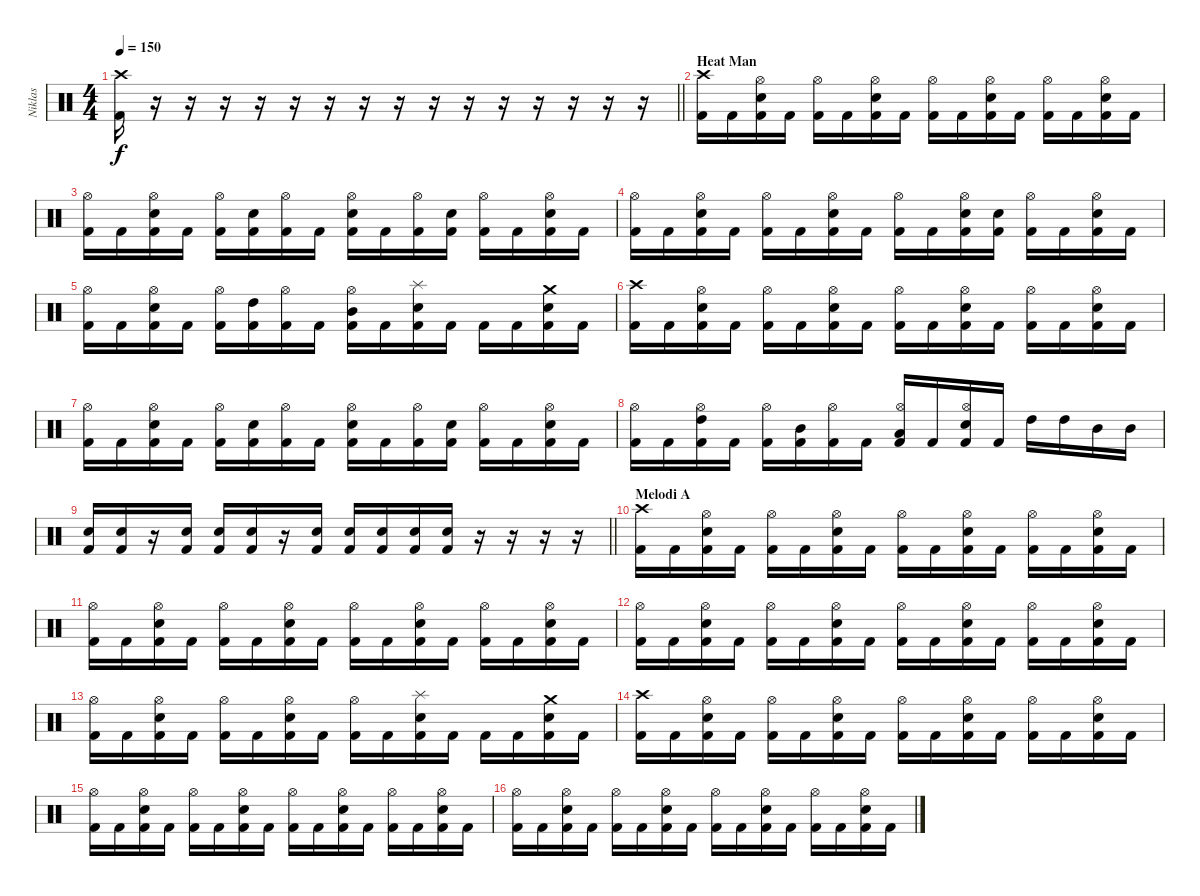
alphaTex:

\track ("Niklas" "Niklas") {instrument percussion}
\staff {score}
\articulation defaults
\ts (4 4)
\tempo 150
\clef neutral
\barLineRight lightlight
\ks c
("Crash high (hit)" "Kick (hit) 2").16{dy f} r.16 r.16 r.16 r.16 r.16 r.16 r.16 r.16 r.16 r.16 r.16 r.16 r.16 r.16 r.16 |
\section ("" "Heat Man")
("Crash high (hit)" "Kick (hit) 2").16 "Kick (hit) 2".16 ("Hi-Hat (open)" "Electric Snare (hit)" "Kick (hit) 2").16 "Kick (hit) 2".16 ("Hi-Hat (open)" "Kick (hit) 2").16 "Kick (hit) 2".16 ("Hi-Hat (open)" "Electric Snare (hit)" "Kick (hit) 2").16 "Kick (hit) 2".16 ("Hi-Hat (open)" "Kick (hit) 2").16 "Kick (hit) 2".16 ("Hi-Hat (open)" "Electric Snare (hit)" "Kick (hit) 2").16 "Kick (hit) 2".16 ("Hi-Hat (open)" "Kick (hit) 2").16 "Kick (hit) 2".16 ("Hi-Hat (open)" "Electric Snare (hit)" "Kick (hit) 2").16 "Kick (hit) 2".16 |
("Hi-Hat (open)" "Kick (hit) 2").16 "Kick (hit) 2".16 ("Hi-Hat (open)" "Electric Snare (hit)" "Kick (hit) 2").16 "Kick (hit) 2".16 ("Hi-Hat (open)" "Kick (hit) 2").16 ("Electric Snare (hit)" "Kick (hit) 2").16 ("Hi-Hat (open)" "Kick (hit) 2").16 "Kick (hit) 2".16 ("Hi-Hat (open)" "Electric Snare (hit)" "Kick (hit) 2").16 "Kick (hit) 2".16 ("Hi-Hat (open)" "Kick (hit) 2").16 ("Electric Snare (hit)" "Kick (hit) 2").16 ("Hi-Hat (open)" "Kick (hit) 2").16 "Kick (hit) 2".16 ("Hi-Hat (open)" "Electric Snare (hit)" "Kick (hit) 2").16 "Kick (hit) 2".16 |
("Hi-Hat (open)" "Kick (hit) 2").16 "Kick (hit) 2".16 ("Hi-Hat (open)" "Electric Snare (hit)" "Kick (hit) 2").16 "Kick (hit) 2".16 ("Hi-Hat (open)" "Kick (hit) 2").16 "Kick (hit) 2".16 ("Hi-Hat (open)" "Electric Snare (hit)" "Kick (hit) 2").16 "Kick (hit) 2".16 ("Hi-Hat (open)" "Kick (hit) 2").16 "Kick (hit) 2".16 ("Hi-Hat (open)" "Electric Snare (hit)" "Kick (hit) 2").16 ("Electric Snare (hit)" "Kick (hit) 2").16 ("Hi-Hat (open)" "Kick (hit) 2").16 "Kick (hit) 2".16 ("Hi-Hat (open)" "Electric Snare (hit)" "Kick (hit) 2").16 "Kick (hit) 2".16 |
("Hi-Hat (open)" "Kick (hit) 2").16 "Kick (hit) 2".16 ("Hi-Hat (open)" "Electric Snare (hit)" "Kick (hit) 2").16 "Kick (hit) 2".16 ("Hi-Hat (open)" "Kick (hit) 2").16 ("High Tom (hit)" "Kick (hit) 2").16 ("Hi-Hat (open)" "Kick (hit) 2").16 "Kick (hit) 2".16 ("Hi-Hat (open)" "Mid Tom (hit)" "Kick (hit) 2").16 "Kick (hit) 2".16 ("Splash (hit)" "Electric Snare (hit)" "Kick (hit) 2").16 "Kick (hit) 2".16 "Kick (hit) 2".16 "Kick (hit) 2".16 ("Crash medium (hit)" "Electric Snare (hit)" "Kick (hit) 2").16 "Kick (hit) 2".16 |
("Crash high (hit)" "Kick (hit) 2").16 "Kick (hit) 2".16 ("Hi-Hat (open)" "Electric Snare (hit)" "Kick (hit) 2").16 "Kick (hit) 2".16 ("Hi-Hat (open)" "Kick (hit) 2").16 "Kick (hit) 2".16 ("Hi-Hat (open)" "Electric Snare (hit)" "Kick (hit) 2").16 "Kick (hit) 2".16 ("Hi-Hat (open)" "Kick (hit) 2").16 "Kick (hit) 2".16 ("Hi-Hat (open)" "Electric Snare (hit)" "Kick (hit) 2").16 "Kick (hit) 2".16 ("Hi-Hat (open)" "Kick (hit) 2").16 "Kick (hit) 2".16 ("Hi-Hat (open)" "Electric Snare (hit)" "Kick (hit) 2").16 "Kick (hit) 2".16 |
("Hi-Hat (open)" "Kick (hit) 2").16 "Kick (hit) 2".16 ("Hi-Hat (open)" "Electric Snare (hit)" "Kick (hit) 2").16 "Kick (hit) 2".16 ("Hi-Hat (open)" "Kick (hit) 2").16 ("Electric Snare (hit)" "Kick (hit) 2").16 ("Hi-Hat (open)" "Kick (hit) 2").16 "Kick (hit) 2".16 ("Hi-Hat (open)" "Electric Snare (hit)" "Kick (hit) 2").16 "Kick (hit) 2".16 ("Hi-Hat (open)" "Kick (hit) 2").16 ("Electric Snare (hit)" "Kick (hit) 2").16 ("Hi-Hat (open)" "Kick (hit) 2").16 "Kick (hit) 2".16 ("Hi-Hat (open)" "Electric Snare (hit)" "Kick (hit) 2").16 "Kick (hit) 2".16 |
("Hi-Hat (open)" "Kick (hit) 2").16 "Kick (hit) 2".16 ("High Tom (hit)" "Hi-Hat (open)" "Kick (hit) 2").16 "Kick (hit) 2".16 ("Hi-Hat (open)" "Kick (hit) 2").16 ("Mid Tom (hit)" "Kick (hit) 2").16 ("Hi-Hat (open)" "Kick (hit) 2").16 "Kick (hit) 2".16 ("Hi-Hat (open)" "Low Tom (hit)" "Kick (hit) 2").16 "Kick (hit) 2".16 ("Hi-Hat (open)" "Electric Snare (hit)" "Kick (hit) 2").16 "Kick (hit) 2".16 "High Tom (hit)".16 "High Tom (hit)".16 "Mid Tom (hit)".16 "Mid Tom (hit)".16 |
\barLineRight lightlight
("Electric Snare (hit)" "Kick (hit) 2").16 ("Electric Snare (hit)" "Kick (hit) 2").16 r.16 ("Electric Snare (hit)" "Kick (hit) 2").16 ("Electric Snare (hit)" "Kick (hit) 2").16 ("Electric Snare (hit)" "Kick (hit) 2").16 r.16 ("Electric Snare (hit)" "Kick (hit) 2").16 ("Electric Snare (hit)" "Kick (hit) 2").16 ("Electric Snare (hit)" "Kick (hit) 2").16 ("Electric Snare (hit)" "Kick (hit) 2").16 ("Electric Snare (hit)" "Kick (hit) 2").16 r.16 r.16 r.16 r.16 |
\section ("" "Melodi A")
("Crash high (hit)" "Kick (hit) 2").16 "Kick (hit) 2".16 ("Hi-Hat (open)" "Electric Snare (hit)" "Kick (hit) 2").16 "Kick (hit) 2".16 ("Hi-Hat (open)" "Kick (hit) 2").16 "Kick (hit) 2".16 ("Hi-Hat (open)" "Electric Snare (hit)" "Kick (hit) 2").16 "Kick (hit) 2".16 ("Hi-Hat (open)" "Kick (hit) 2").16 "Kick (hit) 2".16 ("Hi-Hat (open)" "Electric Snare (hit)" "Kick (hit) 2").16 "Kick (hit) 2".16 ("Hi-Hat (open)" "Kick (hit) 2").16 "Kick (hit) 2".16 ("Hi-Hat (open)" "Electric Snare (hit)" "Kick (hit) 2").16 "Kick (hit) 2".16 |
("Hi-Hat (open)" "Kick (hit) 2").16 "Kick (hit) 2".16 ("Hi-Hat (open)" "Electric Snare (hit)" "Kick (hit) 2").16 "Kick (hit) 2".16 ("Hi-Hat (open)" "Kick (hit) 2").16 "Kick (hit) 2".16 ("Hi-Hat (open)" "Electric Snare (hit)" "Kick (hit) 2").16 "Kick (hit) 2".16 ("Hi-Hat (open)" "Kick (hit) 2").16 "Kick (hit) 2".16 ("Hi-Hat (open)" "Electric Snare (hit)" "Kick (hit) 2").16 "Kick (hit) 2".16 ("Hi-Hat (open)" "Kick (hit) 2").16 "Kick (hit) 2".16 ("Hi-Hat (open)" "Electric Snare (hit)" "Kick (hit) 2").16 "Kick (hit) 2".16 |
("Hi-Hat (open)" "Kick (hit) 2").16 "Kick (hit) 2".16 ("Hi-Hat (open)" "Electric Snare (hit)" "Kick (hit) 2").16 "Kick (hit) 2".16 ("Hi-Hat (open)" "Kick (hit) 2").16 "Kick (hit) 2".16 ("Hi-Hat (open)" "Electric Snare (hit)" "Kick (hit) 2").16 "Kick (hit) 2".16 ("Hi-Hat (open)" "Kick (hit) 2").16 "Kick (hit) 2".16 ("Hi-Hat (open)" "Electric Snare (hit)" "Kick (hit) 2").16 "Kick (hit) 2".16 ("Hi-Hat (open)" "Kick (hit) 2").16 "Kick (hit) 2".16 ("Hi-Hat (open)" "Electric Snare (hit)" "Kick (hit) 2").16 "Kick (hit) 2".16 |
("Hi-Hat (open)" "Kick (hit) 2").16 "Kick (hit) 2".16 ("Hi-Hat (open)" "Electric Snare (hit)" "Kick (hit) 2").16 "Kick (hit) 2".16 ("Hi-Hat (open)" "Kick (hit) 2").16 "Kick (hit) 2".16 ("Hi-Hat (open)" "Electric Snare (hit)" "Kick (hit) 2").16 "Kick (hit) 2".16 ("Hi-Hat (open)" "Kick (hit) 2").16 "Kick (hit) 2".16 ("Splash (hit)" "Electric Snare (hit)" "Kick (hit) 2").16 "Kick (hit) 2".16 "Kick (hit) 2".16 "Kick (hit) 2".16 ("Crash medium (hit)" "Electric Snare (hit)" "Kick (hit) 2").16 "Kick (hit) 2".16 |
("Crash high (hit)" "Kick (hit) 2").16 "Kick (hit) 2".16 ("Hi-Hat (open)" "Electric Snare (hit)" "Kick (hit) 2").16 "Kick (hit) 2".16 ("Hi-Hat (open)" "Kick (hit) 2").16 "Kick (hit) 2".16 ("Hi-Hat (open)" "Electric Snare (hit)" "Kick (hit) 2").16 "Kick (hit) 2".16 ("Hi-Hat (open)" "Kick (hit) 2").16 "Kick (hit) 2".16 ("Hi-Hat (open)" "Electric Snare (hit)" "Kick (hit) 2").16 "Kick (hit) 2".16 ("Hi-Hat (open)" "Kick (hit) 2").16 "Kick (hit) 2".16 ("Hi-Hat (open)" "Electric Snare (hit)" "Kick (hit) 2").16 "Kick (hit) 2".16 |
("Hi-Hat (open)" "Kick (hit) 2").16 "Kick (hit) 2".16 ("Hi-Hat (open)" "Electric Snare (hit)" "Kick (hit) 2").16 "Kick (hit) 2".16 ("Hi-Hat (open)" "Kick (hit) 2").16 "Kick (hit) 2".16 ("Hi-Hat (open)" "Electric Snare (hit)" "Kick (hit) 2").16 "Kick (hit) 2".16 ("Hi-Hat (open)" "Kick (hit) 2").16 "Kick (hit) 2".16 ("Hi-Hat (open)" "Electric Snare (hit)" "Kick (hit) 2").16 "Kick (hit) 2".16 ("Hi-Hat (open)" "Kick (hit) 2").16 "Kick (hit) 2".16 ("Hi-Hat (open)" "Electric Snare (hit)" "Kick (hit) 2").16 "Kick (hit) 2".16 |
("Hi-Hat (open)" "Kick (hit) 2").16 "Kick (hit) 2".16 ("Hi-Hat (open)" "Electric Snare (hit)" "Kick (hit) 2").16 "Kick (hit) 2".16 ("Hi-Hat (open)" "Kick (hit) 2").16 "Kick (hit) 2".16 ("Hi-Hat (open)" "Electric Snare (hit)" "Kick (hit) 2").16 "Kick (hit) 2".16 ("Hi-Hat (open)" "Kick (hit) 2").16 "Kick (hit) 2".16 ("Hi-Hat (open)" "Electric Snare (hit)" "Kick (hit) 2").16 "Kick (hit) 2".16 ("Hi-Hat (open)" "Kick (hit) 2").16 "Kick (hit) 2".16 ("Hi-Hat (open)" "Electric Snare (hit)" "Kick (hit) 2").16 "Kick (hit) 2".16
